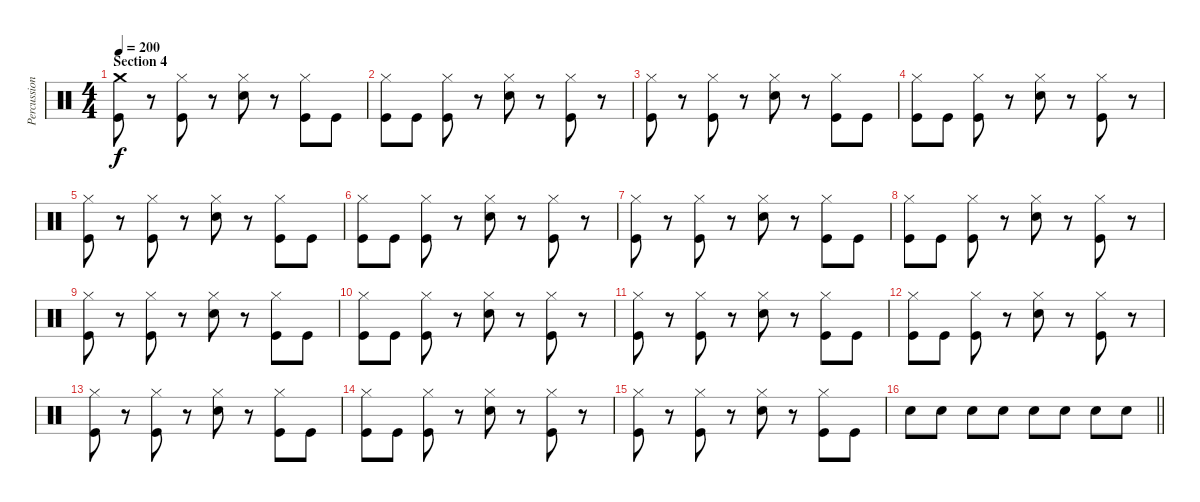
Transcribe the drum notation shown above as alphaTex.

\track ("Percussion" "Percussion") {instrument percussion}
\staff {score}
\articulation defaults
\ts (4 4)
\section ("" "Section 4")
\tempo 200
\clef neutral
\ks c
("Crash medium (hit)" "Kick (hit)").8{dy f} r.8 ("Hi-Hat (closed)" "Kick (hit)").8 r.8 ("Hi-Hat (closed)" "Snare (hit) 2").8 r.8 ("Hi-Hat (closed)" "Kick (hit)").8 "Kick (hit)".8 |
("Hi-Hat (closed)" "Kick (hit)").8 "Kick (hit)".8 ("Hi-Hat (closed)" "Kick (hit)").8 r.8 ("Hi-Hat (closed)" "Snare (hit) 2").8 r.8 ("Hi-Hat (closed)" "Kick (hit)").8 r.8 |
("Hi-Hat (closed)" "Kick (hit)").8 r.8 ("Hi-Hat (closed)" "Kick (hit)").8 r.8 ("Hi-Hat (closed)" "Snare (hit) 2").8 r.8 ("Hi-Hat (closed)" "Kick (hit)").8 "Kick (hit)".8 |
("Hi-Hat (closed)" "Kick (hit)").8 "Kick (hit)".8 ("Hi-Hat (closed)" "Kick (hit)").8 r.8 ("Hi-Hat (closed)" "Snare (hit) 2").8 r.8 ("Hi-Hat (closed)" "Kick (hit)").8 r.8 |
("Hi-Hat (closed)" "Kick (hit)").8 r.8 ("Hi-Hat (closed)" "Kick (hit)").8 r.8 ("Hi-Hat (closed)" "Snare (hit) 2").8 r.8 ("Hi-Hat (closed)" "Kick (hit)").8 "Kick (hit)".8 |
("Hi-Hat (closed)" "Kick (hit)").8 "Kick (hit)".8 ("Hi-Hat (closed)" "Kick (hit)").8 r.8 ("Hi-Hat (closed)" "Snare (hit) 2").8 r.8 ("Hi-Hat (closed)" "Kick (hit)").8 r.8 |
("Hi-Hat (closed)" "Kick (hit)").8 r.8 ("Hi-Hat (closed)" "Kick (hit)").8 r.8 ("Hi-Hat (closed)" "Snare (hit) 2").8 r.8 ("Hi-Hat (closed)" "Kick (hit)").8 "Kick (hit)".8 |
("Hi-Hat (closed)" "Kick (hit)").8 "Kick (hit)".8 ("Hi-Hat (closed)" "Kick (hit)").8 r.8 ("Hi-Hat (closed)" "Snare (hit) 2").8 r.8 ("Hi-Hat (closed)" "Kick (hit)").8 r.8 |
("Hi-Hat (closed)" "Kick (hit)").8 r.8 ("Hi-Hat (closed)" "Kick (hit)").8 r.8 ("Hi-Hat (closed)" "Snare (hit) 2").8 r.8 ("Hi-Hat (closed)" "Kick (hit)").8 "Kick (hit)".8 |
("Hi-Hat (closed)" "Kick (hit)").8 "Kick (hit)".8 ("Hi-Hat (closed)" "Kick (hit)").8 r.8 ("Hi-Hat (closed)" "Snare (hit) 2").8 r.8 ("Hi-Hat (closed)" "Kick (hit)").8 r.8 |
("Hi-Hat (closed)" "Kick (hit)").8 r.8 ("Hi-Hat (closed)" "Kick (hit)").8 r.8 ("Hi-Hat (closed)" "Snare (hit) 2").8 r.8 ("Hi-Hat (closed)" "Kick (hit)").8 "Kick (hit)".8 |
("Hi-Hat (closed)" "Kick (hit)").8 "Kick (hit)".8 ("Hi-Hat (closed)" "Kick (hit)").8 r.8 ("Hi-Hat (closed)" "Snare (hit) 2").8 r.8 ("Hi-Hat (closed)" "Kick (hit)").8 r.8 |
("Hi-Hat (closed)" "Kick (hit)").8 r.8 ("Hi-Hat (closed)" "Kick (hit)").8 r.8 ("Hi-Hat (closed)" "Snare (hit) 2").8 r.8 ("Hi-Hat (closed)" "Kick (hit)").8 "Kick (hit)".8 |
("Hi-Hat (closed)" "Kick (hit)").8 "Kick (hit)".8 ("Hi-Hat (closed)" "Kick (hit)").8 r.8 ("Hi-Hat (closed)" "Snare (hit) 2").8 r.8 ("Hi-Hat (closed)" "Kick (hit)").8 r.8 |
("Hi-Hat (closed)" "Kick (hit)").8 r.8 ("Hi-Hat (closed)" "Kick (hit)").8 r.8 ("Hi-Hat (closed)" "Snare (hit) 2").8 r.8 ("Hi-Hat (closed)" "Kick (hit)").8 "Kick (hit)".8 |
\barLineRight lightlight "Snare (hit) 2".8 "Snare (hit) 2".8 "Snare (hit) 2".8 "Snare (hit) 2".8 "Snare (hit) 2".8 "Snare (hit) 2".8 "Snare (hit) 2".8 "Snare (hit) 2".8
